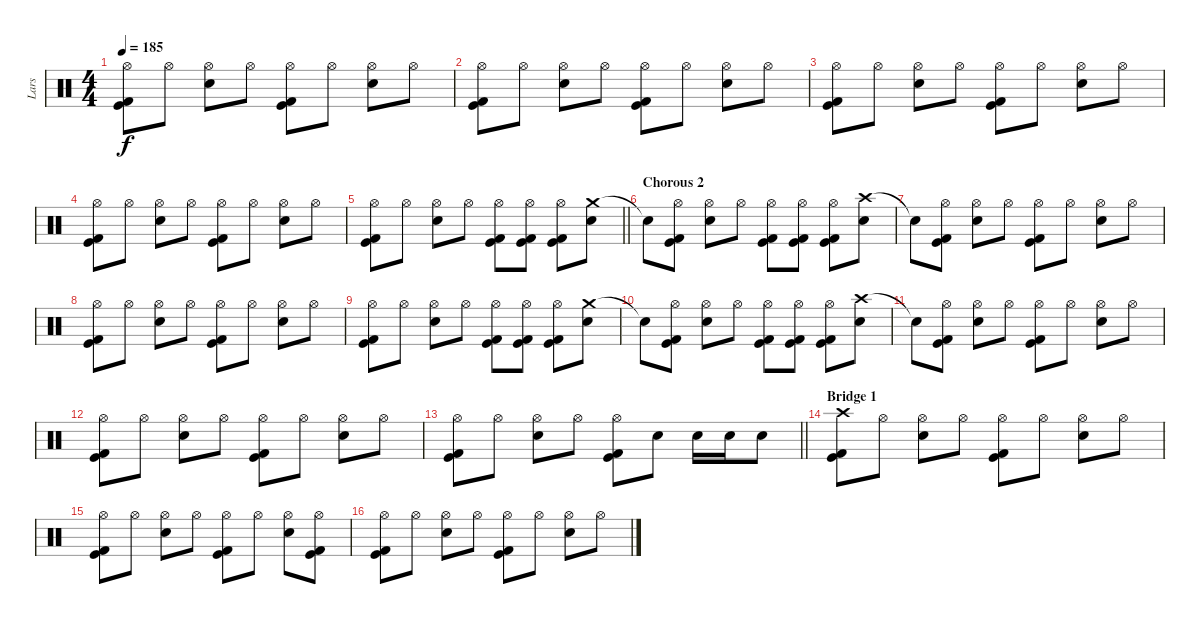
\track ("Lars" "Lars") {instrument percussion}
\staff {score}
\articulation defaults
\ts (4 4)
\tempo 185
\clef neutral
\ks c
("Hi-Hat (open)" "Kick (hit)" "Kick (hit) 2").8{dy f} "Hi-Hat (open)".8 ("Hi-Hat (open)" "Electric Snare (hit)").8 "Hi-Hat (open)".8 ("Hi-Hat (open)" "Kick (hit)" "Kick (hit) 2").8 "Hi-Hat (open)".8 ("Hi-Hat (open)" "Electric Snare (hit)").8 "Hi-Hat (open)".8 |
("Hi-Hat (open)" "Kick (hit)" "Kick (hit) 2").8 "Hi-Hat (open)".8 ("Hi-Hat (open)" "Electric Snare (hit)").8 "Hi-Hat (open)".8 ("Hi-Hat (open)" "Kick (hit)" "Kick (hit) 2").8 "Hi-Hat (open)".8 ("Hi-Hat (open)" "Electric Snare (hit)").8 "Hi-Hat (open)".8 |
("Hi-Hat (open)" "Kick (hit)" "Kick (hit) 2").8 "Hi-Hat (open)".8 ("Hi-Hat (open)" "Electric Snare (hit)").8 "Hi-Hat (open)".8 ("Hi-Hat (open)" "Kick (hit)" "Kick (hit) 2").8 "Hi-Hat (open)".8 ("Hi-Hat (open)" "Electric Snare (hit)").8 "Hi-Hat (open)".8 |
("Hi-Hat (open)" "Kick (hit)" "Kick (hit) 2").8 "Hi-Hat (open)".8 ("Hi-Hat (open)" "Electric Snare (hit)").8 "Hi-Hat (open)".8 ("Hi-Hat (open)" "Kick (hit)" "Kick (hit) 2").8 "Hi-Hat (open)".8 ("Hi-Hat (open)" "Electric Snare (hit)").8 "Hi-Hat (open)".8 |
\barLineRight lightlight
("Hi-Hat (open)" "Kick (hit)" "Kick (hit) 2").8 "Hi-Hat (open)".8 ("Hi-Hat (open)" "Electric Snare (hit)").8 "Hi-Hat (open)".8 ("Hi-Hat (open)" "Kick (hit)" "Kick (hit) 2").8 ("Hi-Hat (open)" "Kick (hit)" "Kick (hit) 2").8 ("Hi-Hat (open)" "Kick (hit)" "Kick (hit) 2").8 ("Crash medium (hit)" "Electric Snare (hit)").8 |
\section ("" "Chorous 2")
"Snare (hit)"{t}.8 ("Hi-Hat (open)" "Kick (hit)" "Kick (hit) 2").8 ("Hi-Hat (open)" "Electric Snare (hit)").8 "Hi-Hat (open)".8 ("Hi-Hat (open)" "Kick (hit)" "Kick (hit) 2").8 ("Hi-Hat (open)" "Kick (hit)" "Kick (hit) 2").8 ("Hi-Hat (open)" "Kick (hit)" "Kick (hit) 2").8 ("Crash high (hit)" "Electric Snare (hit)").8 |
"Snare (hit)"{t}.8 ("Hi-Hat (open)" "Kick (hit)" "Kick (hit) 2").8 ("Hi-Hat (open)" "Electric Snare (hit)").8 "Hi-Hat (open)".8 ("Hi-Hat (open)" "Kick (hit)" "Kick (hit) 2").8 "Hi-Hat (open)".8 ("Hi-Hat (open)" "Electric Snare (hit)").8 "Hi-Hat (open)".8 |
("Hi-Hat (open)" "Kick (hit)" "Kick (hit) 2").8 "Hi-Hat (open)".8 ("Hi-Hat (open)" "Electric Snare (hit)").8 "Hi-Hat (open)".8 ("Hi-Hat (open)" "Kick (hit)" "Kick (hit) 2").8 "Hi-Hat (open)".8 ("Hi-Hat (open)" "Electric Snare (hit)").8 "Hi-Hat (open)".8 |
("Hi-Hat (open)" "Kick (hit)" "Kick (hit) 2").8 "Hi-Hat (open)".8 ("Hi-Hat (open)" "Electric Snare (hit)").8 "Hi-Hat (open)".8 ("Hi-Hat (open)" "Kick (hit)" "Kick (hit) 2").8 ("Hi-Hat (open)" "Kick (hit)" "Kick (hit) 2").8 ("Hi-Hat (open)" "Kick (hit)" "Kick (hit) 2").8 ("Crash medium (hit)" "Electric Snare (hit)").8 |
"Snare (hit)"{t}.8 ("Hi-Hat (open)" "Kick (hit)" "Kick (hit) 2").8 ("Hi-Hat (open)" "Electric Snare (hit)").8 "Hi-Hat (open)".8 ("Hi-Hat (open)" "Kick (hit)" "Kick (hit) 2").8 ("Hi-Hat (open)" "Kick (hit)" "Kick (hit) 2").8 ("Hi-Hat (open)" "Kick (hit)" "Kick (hit) 2").8 ("Crash high (hit)" "Electric Snare (hit)").8 |
"Snare (hit)"{t}.8 ("Hi-Hat (open)" "Kick (hit)" "Kick (hit) 2").8 ("Hi-Hat (open)" "Electric Snare (hit)").8 "Hi-Hat (open)".8 ("Hi-Hat (open)" "Kick (hit)" "Kick (hit) 2").8 "Hi-Hat (open)".8 ("Hi-Hat (open)" "Electric Snare (hit)").8 "Hi-Hat (open)".8 |
("Hi-Hat (open)" "Kick (hit)" "Kick (hit) 2").8 "Hi-Hat (open)".8 ("Hi-Hat (open)" "Electric Snare (hit)").8 "Hi-Hat (open)".8 ("Hi-Hat (open)" "Kick (hit)" "Kick (hit) 2").8 "Hi-Hat (open)".8 ("Hi-Hat (open)" "Electric Snare (hit)").8 "Hi-Hat (open)".8 |
\barLineRight lightlight
("Hi-Hat (open)" "Kick (hit)" "Kick (hit) 2").8 "Hi-Hat (open)".8 ("Hi-Hat (open)" "Electric Snare (hit)").8 "Hi-Hat (open)".8 ("Hi-Hat (open)" "Kick (hit)" "Kick (hit) 2").8 "Electric Snare (hit)".8 "Electric Snare (hit)".16 "Electric Snare (hit)".16 "Electric Snare (hit)".8 |
\section ("" "Bridge 1")
("Crash high (hit)" "Kick (hit)" "Kick (hit) 2").8 "Hi-Hat (open)".8 ("Hi-Hat (open)" "Electric Snare (hit)").8 "Hi-Hat (open)".8 ("Hi-Hat (open)" "Kick (hit)" "Kick (hit) 2").8 "Hi-Hat (open)".8 ("Hi-Hat (open)" "Electric Snare (hit)").8 "Hi-Hat (open)".8 |
("Hi-Hat (open)" "Kick (hit)" "Kick (hit) 2").8 "Hi-Hat (open)".8 ("Hi-Hat (open)" "Electric Snare (hit)").8 "Hi-Hat (open)".8 ("Hi-Hat (open)" "Kick (hit)" "Kick (hit) 2").8 "Hi-Hat (open)".8 ("Hi-Hat (open)" "Electric Snare (hit)").8 ("Hi-Hat (open)" "Kick (hit)" "Kick (hit) 2").8 |
("Hi-Hat (open)" "Kick (hit)" "Kick (hit) 2").8 "Hi-Hat (open)".8 ("Hi-Hat (open)" "Electric Snare (hit)").8 "Hi-Hat (open)".8 ("Hi-Hat (open)" "Kick (hit)" "Kick (hit) 2").8 "Hi-Hat (open)".8 ("Hi-Hat (open)" "Electric Snare (hit)").8 "Hi-Hat (open)".8
